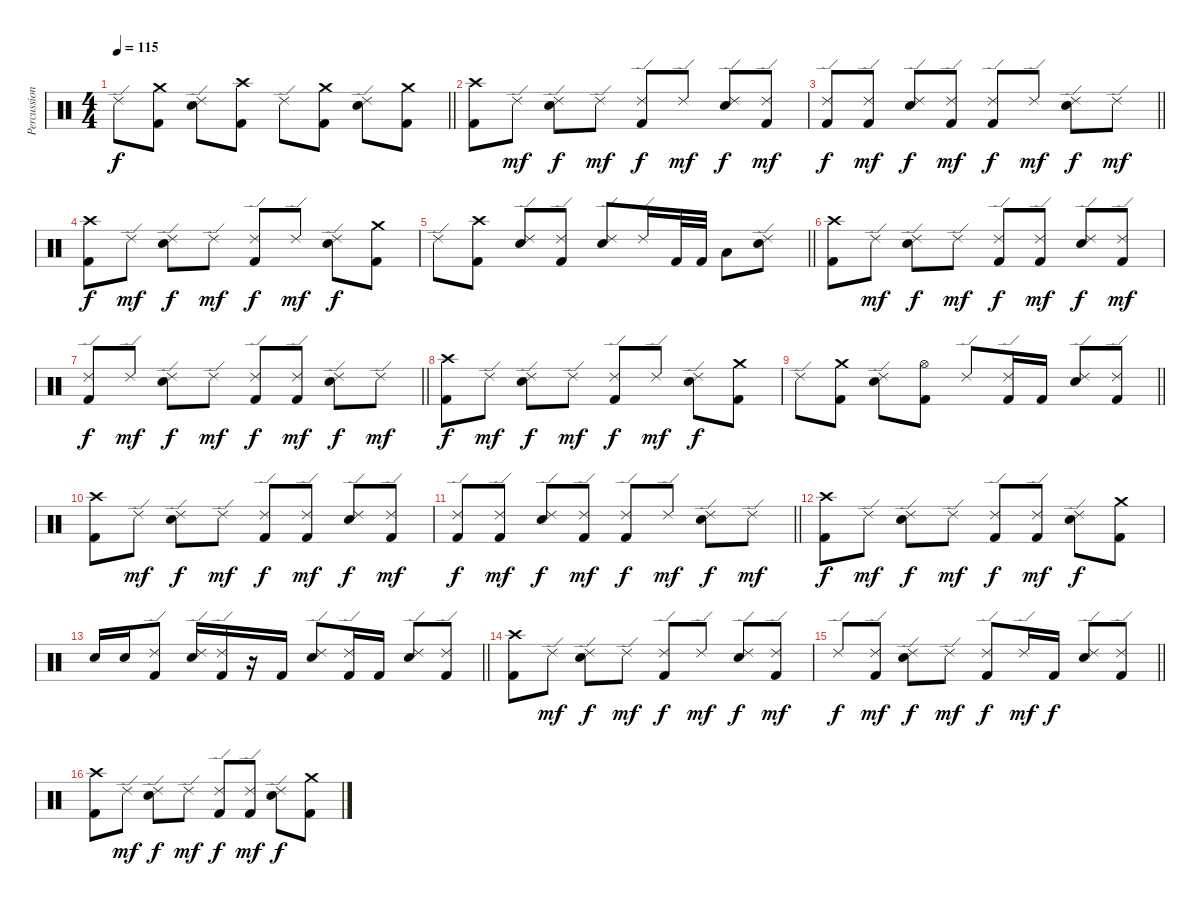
\track ("Percussion" "Percussion") {instrument percussion}
\staff {score}
\articulation defaults
\ts (4 4)
\tempo 115
\clef neutral
\barLineRight lightlight
\ks c "Ride (edge) 2".8{dy f}
("Crash medium (hit)" "Kick (hit) 2").8 ("Ride (edge) 2" "Electric Snare (hit)").8 ("Crash high (hit)" "Kick (hit) 2").8 "Ride (edge) 2".8 ("Crash medium (hit)" "Kick (hit) 2").8 ("Ride (edge) 2" "Electric Snare (hit)").8 ("Crash medium (hit)" "Kick (hit) 2").8 |
("Crash high (hit)" "Kick (hit) 2").8 "Ride (edge) 2".8{dy mf} ("Ride (edge) 2" "Electric Snare (hit)").8{dy f} "Ride (edge) 2".8{dy mf} ("Ride (edge) 2" "Kick (hit) 2").8{dy f} "Ride (edge) 2".8{dy mf} ("Ride (edge) 2" "Electric Snare (hit)").8{dy f} ("Ride (edge) 2" "Kick (hit) 2").8{dy mf} |
\barLineRight lightlight
("Ride (edge) 2" "Kick (hit) 2").8{dy f} ("Ride (edge) 2" "Kick (hit) 2").8{dy mf} ("Ride (edge) 2" "Electric Snare (hit)").8{dy f} ("Ride (edge) 2" "Kick (hit) 2").8{dy mf} ("Ride (edge) 2" "Kick (hit) 2").8{dy f} "Ride (edge) 2".8{dy mf} ("Ride (edge) 2" "Electric Snare (hit)").8{dy f} "Ride (edge) 2".8{dy mf} |
("Crash high (hit)" "Kick (hit) 2").8{dy f} "Ride (edge) 2".8{dy mf} ("Ride (edge) 2" "Electric Snare (hit)").8{dy f} "Ride (edge) 2".8{dy mf} ("Ride (edge) 2" "Kick (hit) 2").8{dy f} "Ride (edge) 2".8{dy mf} ("Ride (edge) 2" "Electric Snare (hit)").8{dy f} ("Crash medium (hit)" "Kick (hit) 2").8 |
\barLineRight lightlight "Ride (edge) 2".8
("Crash high (hit)" "Kick (hit) 2").8 ("Ride (edge) 2" "Electric Snare (hit)").8 ("Ride (edge) 2" "Kick (hit) 2").8 ("Ride (edge) 2" "Electric Snare (hit)").8 "Ride (edge) 2".16 "Kick (hit) 2".32 "Kick (hit) 2".32 "Low Tom (hit)".8 ("Ride (edge) 2" "Electric Snare (hit)").8 |
("Crash high (hit)" "Kick (hit) 2").8 "Ride (edge) 2".8{dy mf} ("Ride (edge) 2" "Electric Snare (hit)").8{dy f} "Ride (edge) 2".8{dy mf} ("Ride (edge) 2" "Kick (hit) 2").8{dy f} ("Ride (edge) 2" "Kick (hit) 2").8{dy mf} ("Ride (edge) 2" "Electric Snare (hit)").8{dy f} ("Ride (edge) 2" "Kick (hit) 2").8{dy mf} |
\barLineRight lightlight
("Ride (edge) 2" "Kick (hit) 2").8{dy f} "Ride (edge) 2".8{dy mf} ("Ride (edge) 2" "Electric Snare (hit)").8{dy f} "Ride (edge) 2".8{dy mf} ("Ride (edge) 2" "Kick (hit) 2").8{dy f} ("Ride (edge) 2" "Kick (hit) 2").8{dy mf} ("Ride (edge) 2" "Electric Snare (hit)").8{dy f} "Ride (edge) 2".8{dy mf} |
("Crash high (hit)" "Kick (hit) 2").8{dy f} "Ride (edge) 2".8{dy mf} ("Ride (edge) 2" "Electric Snare (hit)").8{dy f} "Ride (edge) 2".8{dy mf} ("Ride (edge) 2" "Kick (hit) 2").8{dy f} "Ride (edge) 2".8{dy mf} ("Ride (edge) 2" "Electric Snare (hit)").8{dy f} ("Crash medium (hit)" "Kick (hit) 2").8 |
\barLineRight lightlight "Ride (edge) 2".8
("Crash medium (hit)" "Kick (hit) 2").8 ("Ride (edge) 2" "Electric Snare (hit)").8 ("Hi-Hat (open)" "Kick (hit) 2").8 "Ride (edge) 2".8 ("Ride (edge) 2" "Kick (hit) 2").16 "Kick (hit) 2".16 ("Ride (edge) 2" "Electric Snare (hit)").8 ("Ride (edge) 2" "Kick (hit) 2").8 |
("Crash high (hit)" "Kick (hit) 2").8 "Ride (edge) 2".8{dy mf} ("Ride (edge) 2" "Electric Snare (hit)").8{dy f} "Ride (edge) 2".8{dy mf} ("Ride (edge) 2" "Kick (hit) 2").8{dy f} ("Ride (edge) 2" "Kick (hit) 2").8{dy mf} ("Ride (edge) 2" "Electric Snare (hit)").8{dy f} ("Ride (edge) 2" "Kick (hit) 2").8{dy mf} |
\barLineRight lightlight
("Ride (edge) 2" "Kick (hit) 2").8{dy f} ("Ride (edge) 2" "Kick (hit) 2").8{dy mf} ("Ride (edge) 2" "Electric Snare (hit)").8{dy f} ("Ride (edge) 2" "Kick (hit) 2").8{dy mf} ("Ride (edge) 2" "Kick (hit) 2").8{dy f} "Ride (edge) 2".8{dy mf} ("Ride (edge) 2" "Electric Snare (hit)").8{dy f} "Ride (edge) 2".8{dy mf} |
("Crash high (hit)" "Kick (hit) 2").8{dy f} "Ride (edge) 2".8{dy mf} ("Ride (edge) 2" "Electric Snare (hit)").8{dy f} "Ride (edge) 2".8{dy mf} ("Ride (edge) 2" "Kick (hit) 2").8{dy f} ("Ride (edge) 2" "Kick (hit) 2").8{dy mf} ("Ride (edge) 2" "Electric Snare (hit)").8{dy f} ("Crash medium (hit)" "Kick (hit) 2").8 |
\barLineRight lightlight "Electric Snare (hit)".16 "Electric Snare (hit)".16
("Ride (edge) 2" "Kick (hit) 2").8 ("Ride (edge) 2" "Electric Snare (hit)").16 ("Ride (edge) 2" "Kick (hit) 2").16 r.16 "Kick (hit) 2".16 ("Ride (edge) 2" "Electric Snare (hit)").8 ("Ride (edge) 2" "Kick (hit) 2").16 "Kick (hit) 2".16 ("Ride (edge) 2" "Electric Snare (hit)").8 ("Ride (edge) 2" "Kick (hit) 2").8 |
("Crash high (hit)" "Kick (hit) 2").8 "Ride (edge) 2".8{dy mf} ("Ride (edge) 2" "Electric Snare (hit)").8{dy f} "Ride (edge) 2".8{dy mf} ("Ride (edge) 2" "Kick (hit) 2").8{dy f} "Ride (edge) 2".8{dy mf} ("Ride (edge) 2" "Electric Snare (hit)").8{dy f} ("Ride (edge) 2" "Kick (hit) 2").8{dy mf} |
\barLineRight lightlight "Ride (edge) 2".8{dy f}
("Ride (edge) 2" "Kick (hit) 2").8{dy mf} ("Ride (edge) 2" "Electric Snare (hit)").8{dy f} "Ride (edge) 2".8{dy mf} ("Ride (edge) 2" "Kick (hit) 2").8{dy f} "Ride (edge) 2".16{dy mf} "Kick (hit) 2".16{dy f} ("Ride (edge) 2" "Electric Snare (hit)").8 ("Ride (edge) 2" "Kick (hit) 2").8 |
("Crash high (hit)" "Kick (hit) 2").8 "Ride (edge) 2".8{dy mf} ("Ride (edge) 2" "Electric Snare (hit)").8{dy f} "Ride (edge) 2".8{dy mf} ("Ride (edge) 2" "Kick (hit) 2").8{dy f} ("Ride (edge) 2" "Kick (hit) 2").8{dy mf} ("Ride (edge) 2" "Electric Snare (hit)").8{dy f} ("Crash medium (hit)" "Kick (hit) 2").8
